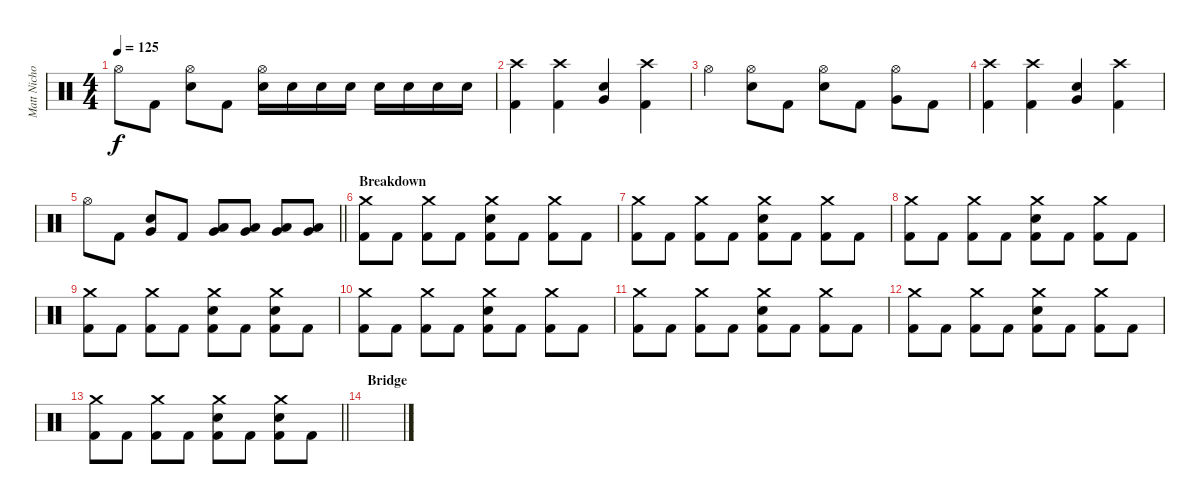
\track ("Matt Nicholls" "Matt Nicho") {instrument percussion}
\staff {score}
\articulation defaults
\ts (4 4)
\tempo 125
\clef neutral
\ks c "Hi-Hat (open)".8{dy f} "Kick (hit) 2".8
("Hi-Hat (open)" "Electric Snare (hit)").8 "Kick (hit) 2".8 ("Hi-Hat (open)" "Electric Snare (hit)").16 "Electric Snare (hit)".16 "Electric Snare (hit)".16 "Electric Snare (hit)".16 "Electric Snare (hit)".16 "Electric Snare (hit)".16 "Electric Snare (hit)".16 "Electric Snare (hit)".16 |
("Crash high (hit)" "Kick (hit) 2").4 ("Crash high (hit)" "Kick (hit) 2").4 ("Electric Snare (hit)" "Very Low Tom (hit)").4 ("Crash high (hit)" "Kick (hit) 2").4 |
"Hi-Hat (open)".4 ("Hi-Hat (open)" "Electric Snare (hit)").8 "Kick (hit) 2".8 ("Hi-Hat (open)" "Electric Snare (hit)").8 "Kick (hit) 2".8 ("Hi-Hat (open)" "Very Low Tom (hit)").8 "Kick (hit) 2".8 |
("Crash high (hit)" "Kick (hit) 2").4 ("Crash high (hit)" "Kick (hit) 2").4 ("Electric Snare (hit)" "Very Low Tom (hit)").4 ("Crash high (hit)" "Kick (hit) 2").4 |
\barLineRight lightlight "Hi-Hat (open)".8 "Kick (hit) 2".8
("Electric Snare (hit)" "Very Low Tom (hit)").8 "Kick (hit) 2".8 ("Low Floor Tom (hit)" "Very Low Tom (hit)").8 ("Low Floor Tom (hit)" "Very Low Tom (hit)").8 ("Low Floor Tom (hit)" "Very Low Tom (hit)").8 ("Low Floor Tom (hit)" "Very Low Tom (hit)").8 |
\section ("" "Breakdown")
("Crash medium (hit)" "Kick (hit) 2").8 "Kick (hit) 2".8 ("Crash medium (hit)" "Kick (hit) 2").8 "Kick (hit) 2".8 ("Crash medium (hit)" "Electric Snare (hit)" "Kick (hit) 2").8 "Kick (hit) 2".8 ("Crash medium (hit)" "Kick (hit) 2").8 "Kick (hit) 2".8 |
("Crash medium (hit)" "Kick (hit) 2").8 "Kick (hit) 2".8 ("Crash medium (hit)" "Kick (hit) 2").8 "Kick (hit) 2".8 ("Crash medium (hit)" "Electric Snare (hit)" "Kick (hit) 2").8 "Kick (hit) 2".8 ("Crash medium (hit)" "Kick (hit) 2").8 "Kick (hit) 2".8 |
("Crash medium (hit)" "Kick (hit) 2").8 "Kick (hit) 2".8 ("Crash medium (hit)" "Kick (hit) 2").8 "Kick (hit) 2".8 ("Crash medium (hit)" "Electric Snare (hit)" "Kick (hit) 2").8 "Kick (hit) 2".8 ("Crash medium (hit)" "Kick (hit) 2").8 "Kick (hit) 2".8 |
("Crash medium (hit)" "Kick (hit) 2").8 "Kick (hit) 2".8 ("Crash medium (hit)" "Kick (hit) 2").8 "Kick (hit) 2".8 ("Crash medium (hit)" "Electric Snare (hit)" "Kick (hit) 2").8 "Kick (hit) 2".8 ("Crash medium (hit)" "Electric Snare (hit)" "Kick (hit) 2").8 "Kick (hit) 2".8 |
("Crash medium (hit)" "Kick (hit) 2").8 "Kick (hit) 2".8 ("Crash medium (hit)" "Kick (hit) 2").8 "Kick (hit) 2".8 ("Crash medium (hit)" "Electric Snare (hit)" "Kick (hit) 2").8 "Kick (hit) 2".8 ("Crash medium (hit)" "Kick (hit) 2").8 "Kick (hit) 2".8 |
("Crash medium (hit)" "Kick (hit) 2").8 "Kick (hit) 2".8 ("Crash medium (hit)" "Kick (hit) 2").8 "Kick (hit) 2".8 ("Crash medium (hit)" "Electric Snare (hit)" "Kick (hit) 2").8 "Kick (hit) 2".8 ("Crash medium (hit)" "Kick (hit) 2").8 "Kick (hit) 2".8 |
("Crash medium (hit)" "Kick (hit) 2").8 "Kick (hit) 2".8 ("Crash medium (hit)" "Kick (hit) 2").8 "Kick (hit) 2".8 ("Crash medium (hit)" "Electric Snare (hit)" "Kick (hit) 2").8 "Kick (hit) 2".8 ("Crash medium (hit)" "Kick (hit) 2").8 "Kick (hit) 2".8 |
\barLineRight lightlight
("Crash medium (hit)" "Kick (hit) 2").8 "Kick (hit) 2".8 ("Crash medium (hit)" "Kick (hit) 2").8 "Kick (hit) 2".8 ("Crash medium (hit)" "Electric Snare (hit)" "Kick (hit) 2").8 "Kick (hit) 2".8 ("Crash medium (hit)" "Electric Snare (hit)" "Kick (hit) 2").8 "Kick (hit) 2".8 |
\section ("" "Bridge")
